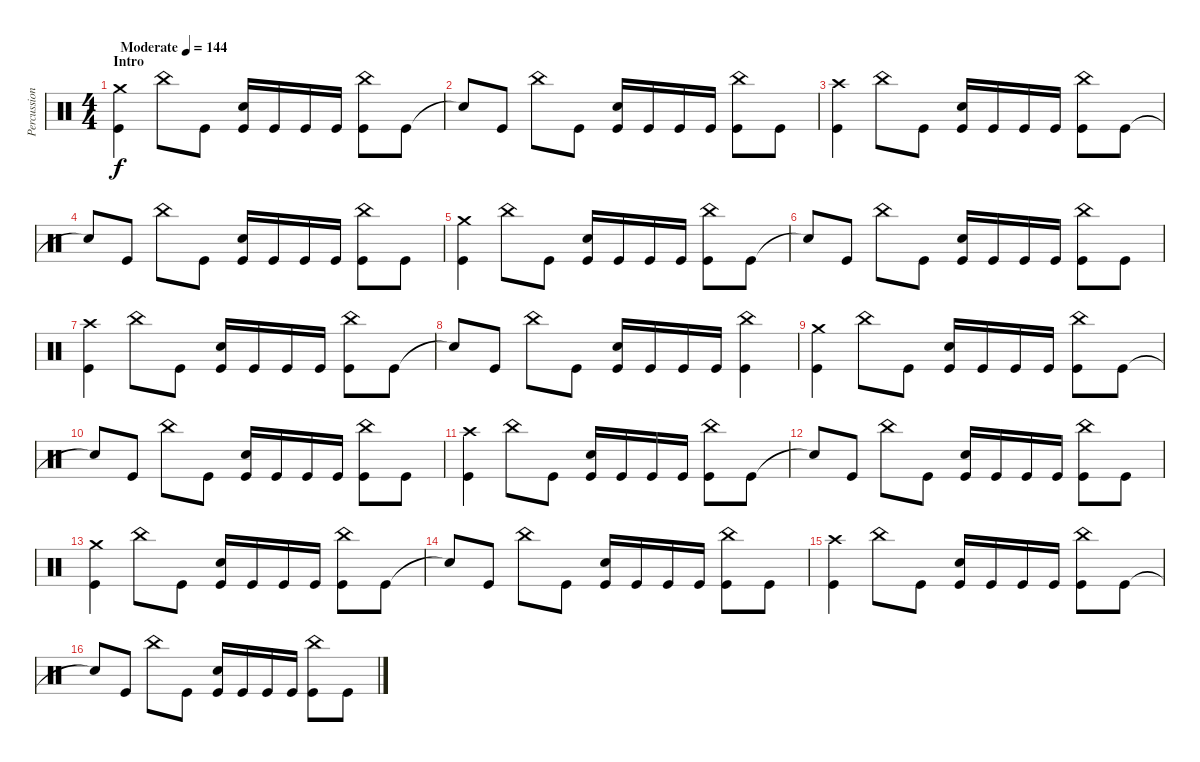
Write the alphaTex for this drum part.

\track ("Percussion" "Percussion") {instrument percussion}
\staff {score}
\articulation defaults
\ts (4 4)
\section ("" "Intro")
\tempo (144 "Moderate")
\clef neutral
\ks c
("Crash medium (hit)" "Kick (hit)").4{dy f} "China (hit)".8 "Kick (hit)".8 ("Electric Snare (hit)" "Kick (hit)").16 "Kick (hit)".16 "Kick (hit)".16 "Kick (hit)".16 ("China (hit)" "Kick (hit)").8 "Kick (hit)".8 |
"Snare (hit)"{t}.8 "Kick (hit)".8 "China (hit)".8 "Kick (hit)".8 ("Electric Snare (hit)" "Kick (hit)").16 "Kick (hit)".16 "Kick (hit)".16 "Kick (hit)".16 ("China (hit)" "Kick (hit)").8 "Kick (hit)".8 |
("Crash high (hit)" "Kick (hit)").4 "China (hit)".8 "Kick (hit)".8 ("Electric Snare (hit)" "Kick (hit)").16 "Kick (hit)".16 "Kick (hit)".16 "Kick (hit)".16 ("China (hit)" "Kick (hit)").8 "Kick (hit)".8 |
"Snare (hit)"{t}.8 "Kick (hit)".8 "China (hit)".8 "Kick (hit)".8 ("Electric Snare (hit)" "Kick (hit)").16 "Kick (hit)".16 "Kick (hit)".16 "Kick (hit)".16 ("China (hit)" "Kick (hit)").8 "Kick (hit)".8 |
("Crash medium (hit)" "Kick (hit)").4 "China (hit)".8 "Kick (hit)".8 ("Electric Snare (hit)" "Kick (hit)").16 "Kick (hit)".16 "Kick (hit)".16 "Kick (hit)".16 ("China (hit)" "Kick (hit)").8 "Kick (hit)".8 |
"Snare (hit)"{t}.8 "Kick (hit)".8 "China (hit)".8 "Kick (hit)".8 ("Electric Snare (hit)" "Kick (hit)").16 "Kick (hit)".16 "Kick (hit)".16 "Kick (hit)".16 ("China (hit)" "Kick (hit)").8 "Kick (hit)".8 |
("Crash high (hit)" "Kick (hit)").4 "China (hit)".8 "Kick (hit)".8 ("Electric Snare (hit)" "Kick (hit)").16 "Kick (hit)".16 "Kick (hit)".16 "Kick (hit)".16 ("China (hit)" "Kick (hit)").8 "Kick (hit)".8 |
"Snare (hit)"{t}.8 "Kick (hit)".8 "China (hit)".8 "Kick (hit)".8 ("Electric Snare (hit)" "Kick (hit)").16 "Kick (hit)".16 "Kick (hit)".16 "Kick (hit)".16 ("China (hit)" "Kick (hit)").4 |
("Crash medium (hit)" "Kick (hit)").4 "China (hit)".8 "Kick (hit)".8 ("Electric Snare (hit)" "Kick (hit)").16 "Kick (hit)".16 "Kick (hit)".16 "Kick (hit)".16 ("China (hit)" "Kick (hit)").8 "Kick (hit)".8 |
"Snare (hit)"{t}.8 "Kick (hit)".8 "China (hit)".8 "Kick (hit)".8 ("Electric Snare (hit)" "Kick (hit)").16 "Kick (hit)".16 "Kick (hit)".16 "Kick (hit)".16 ("China (hit)" "Kick (hit)").8 "Kick (hit)".8 |
("Crash high (hit)" "Kick (hit)").4 "China (hit)".8 "Kick (hit)".8 ("Electric Snare (hit)" "Kick (hit)").16 "Kick (hit)".16 "Kick (hit)".16 "Kick (hit)".16 ("China (hit)" "Kick (hit)").8 "Kick (hit)".8 |
"Snare (hit)"{t}.8 "Kick (hit)".8 "China (hit)".8 "Kick (hit)".8 ("Electric Snare (hit)" "Kick (hit)").16 "Kick (hit)".16 "Kick (hit)".16 "Kick (hit)".16 ("China (hit)" "Kick (hit)").8 "Kick (hit)".8 |
("Crash medium (hit)" "Kick (hit)").4 "China (hit)".8 "Kick (hit)".8 ("Electric Snare (hit)" "Kick (hit)").16 "Kick (hit)".16 "Kick (hit)".16 "Kick (hit)".16 ("China (hit)" "Kick (hit)").8 "Kick (hit)".8 |
"Snare (hit)"{t}.8 "Kick (hit)".8 "China (hit)".8 "Kick (hit)".8 ("Electric Snare (hit)" "Kick (hit)").16 "Kick (hit)".16 "Kick (hit)".16 "Kick (hit)".16 ("China (hit)" "Kick (hit)").8 "Kick (hit)".8 |
("Crash high (hit)" "Kick (hit)").4 "China (hit)".8 "Kick (hit)".8 ("Electric Snare (hit)" "Kick (hit)").16 "Kick (hit)".16 "Kick (hit)".16 "Kick (hit)".16 ("China (hit)" "Kick (hit)").8 "Kick (hit)".8 |
"Snare (hit)"{t}.8 "Kick (hit)".8 "China (hit)".8 "Kick (hit)".8 ("Electric Snare (hit)" "Kick (hit)").16 "Kick (hit)".16 "Kick (hit)".16 "Kick (hit)".16 ("China (hit)" "Kick (hit)").8 "Kick (hit)".8
